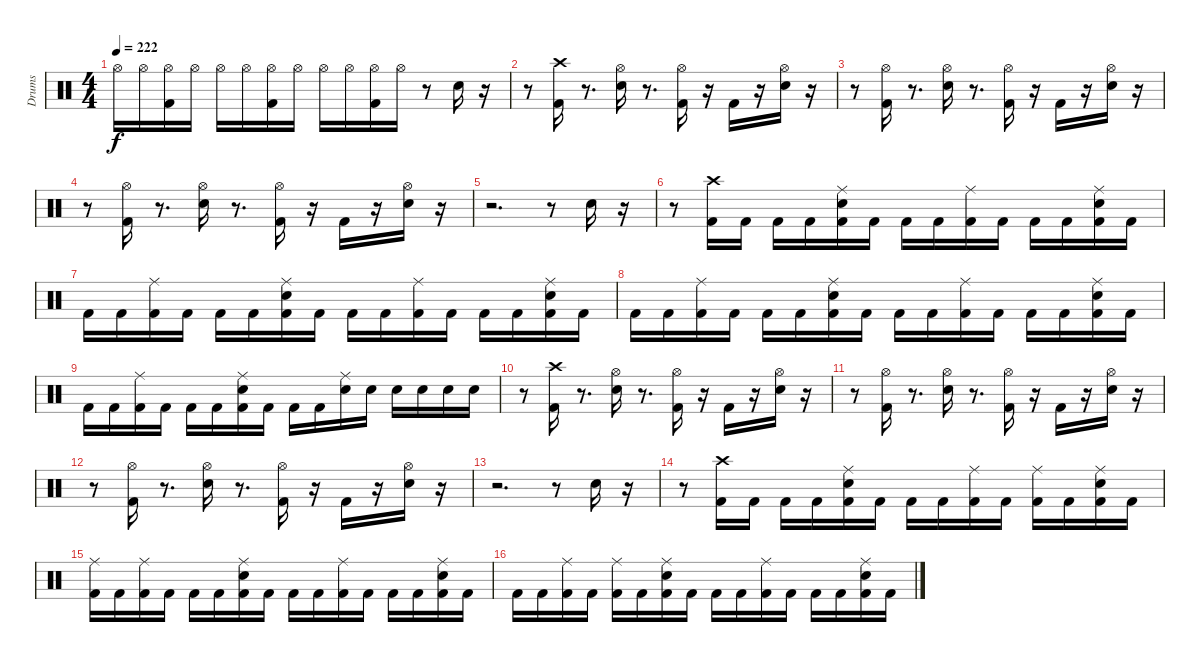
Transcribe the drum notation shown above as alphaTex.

\track ("Drums" "Drums") {instrument percussion}
\staff {score}
\articulation defaults
\ts (4 4)
\tempo 222
\clef neutral
\ks c "Hi-Hat (open)".16{dy f} "Hi-Hat (open)".16
("Kick (hit) 2" "Hi-Hat (open)").16 "Hi-Hat (open)".16 "Hi-Hat (open)".16 "Hi-Hat (open)".16 ("Kick (hit) 2" "Hi-Hat (open)").16 "Hi-Hat (open)".16 "Hi-Hat (open)".16 "Hi-Hat (open)".16 ("Kick (hit) 2" "Hi-Hat (open)").16 "Hi-Hat (open)".16 r.8 "Snare (hit) 2".16 r.16 |
r.8 ("Kick (hit) 2" "Crash high (hit)").16 r.8{d} ("Snare (hit) 2" "Hi-Hat (open)").16 r.8{d} ("Kick (hit) 2" "Hi-Hat (open)").16 r.16 "Kick (hit) 2".16 r.16 ("Snare (hit) 2" "Hi-Hat (open)").16 r.16 |
r.8 ("Kick (hit) 2" "Hi-Hat (open)").16 r.8{d} ("Snare (hit) 2" "Hi-Hat (open)").16 r.8{d} ("Kick (hit) 2" "Hi-Hat (open)").16 r.16 "Kick (hit) 2".16 r.16 ("Snare (hit) 2" "Hi-Hat (open)").16 r.16 |
r.8 ("Kick (hit) 2" "Hi-Hat (open)").16 r.8{d} ("Snare (hit) 2" "Hi-Hat (open)").16 r.8{d} ("Kick (hit) 2" "Hi-Hat (open)").16 r.16 "Kick (hit) 2".16 r.16 ("Snare (hit) 2" "Hi-Hat (open)").16 r.16 |
r.2{d} r.8 "Snare (hit) 2".16 r.16 |
r.8 ("Kick (hit) 2" "Crash high (hit)").16 "Kick (hit) 2".16 "Kick (hit) 2".16 "Kick (hit) 2".16 ("Kick (hit) 2" "Snare (hit) 2" "Ride (middle)").16 "Kick (hit) 2".16 "Kick (hit) 2".16 "Kick (hit) 2".16 ("Kick (hit) 2" "Ride (middle)").16 "Kick (hit) 2".16 "Kick (hit) 2".16 "Kick (hit) 2".16 ("Kick (hit) 2" "Snare (hit) 2" "Ride (middle)").16 "Kick (hit) 2".16 |
"Kick (hit) 2".16 "Kick (hit) 2".16 ("Kick (hit) 2" "Ride (middle)").16 "Kick (hit) 2".16 "Kick (hit) 2".16 "Kick (hit) 2".16 ("Kick (hit) 2" "Snare (hit) 2" "Ride (middle)").16 "Kick (hit) 2".16 "Kick (hit) 2".16 "Kick (hit) 2".16 ("Kick (hit) 2" "Ride (middle)").16 "Kick (hit) 2".16 "Kick (hit) 2".16 "Kick (hit) 2".16 ("Kick (hit) 2" "Snare (hit) 2" "Ride (middle)").16 "Kick (hit) 2".16 |
"Kick (hit) 2".16 "Kick (hit) 2".16 ("Kick (hit) 2" "Ride (middle)").16 "Kick (hit) 2".16 "Kick (hit) 2".16 "Kick (hit) 2".16 ("Kick (hit) 2" "Snare (hit) 2" "Ride (middle)").16 "Kick (hit) 2".16 "Kick (hit) 2".16 "Kick (hit) 2".16 ("Kick (hit) 2" "Ride (middle)").16 "Kick (hit) 2".16 "Kick (hit) 2".16 "Kick (hit) 2".16 ("Kick (hit) 2" "Snare (hit) 2" "Ride (middle)").16 "Kick (hit) 2".16 |
"Kick (hit) 2".16 "Kick (hit) 2".16 ("Kick (hit) 2" "Ride (middle)").16 "Kick (hit) 2".16 "Kick (hit) 2".16 "Kick (hit) 2".16 ("Kick (hit) 2" "Snare (hit) 2" "Ride (middle)").16 "Kick (hit) 2".16 "Kick (hit) 2".16 "Kick (hit) 2".16 ("Snare (hit) 2" "Ride (middle)").16 "Snare (hit) 2".16 "Snare (hit) 2".16 "Snare (hit) 2".16 "Snare (hit) 2".16 "Snare (hit) 2".16 |
r.8 ("Kick (hit) 2" "Crash high (hit)").16 r.8{d} ("Snare (hit) 2" "Hi-Hat (open)").16 r.8{d} ("Kick (hit) 2" "Hi-Hat (open)").16 r.16 "Kick (hit) 2".16 r.16 ("Snare (hit) 2" "Hi-Hat (open)").16 r.16 |
r.8 ("Kick (hit) 2" "Hi-Hat (open)").16 r.8{d} ("Snare (hit) 2" "Hi-Hat (open)").16 r.8{d} ("Kick (hit) 2" "Hi-Hat (open)").16 r.16 "Kick (hit) 2".16 r.16 ("Snare (hit) 2" "Hi-Hat (open)").16 r.16 |
r.8 ("Kick (hit) 2" "Hi-Hat (open)").16 r.8{d} ("Snare (hit) 2" "Hi-Hat (open)").16 r.8{d} ("Kick (hit) 2" "Hi-Hat (open)").16 r.16 "Kick (hit) 2".16 r.16 ("Snare (hit) 2" "Hi-Hat (open)").16 r.16 |
r.2{d} r.8 "Snare (hit) 2".16 r.16 |
r.8 ("Kick (hit) 2" "Crash high (hit)").16 "Kick (hit) 2".16 "Kick (hit) 2".16 "Kick (hit) 2".16 ("Kick (hit) 2" "Snare (hit) 2" "Ride (middle)").16 "Kick (hit) 2".16 "Kick (hit) 2".16 "Kick (hit) 2".16 ("Kick (hit) 2" "Ride (middle)").16 "Kick (hit) 2".16 ("Kick (hit) 2" "Ride (middle)").16 "Kick (hit) 2".16 ("Kick (hit) 2" "Snare (hit) 2" "Ride (middle)").16 "Kick (hit) 2".16 |
("Kick (hit) 2" "Ride (middle)").16 "Kick (hit) 2".16 ("Kick (hit) 2" "Ride (middle)").16 "Kick (hit) 2".16 "Kick (hit) 2".16 "Kick (hit) 2".16 ("Kick (hit) 2" "Snare (hit) 2" "Ride (middle)").16 "Kick (hit) 2".16 "Kick (hit) 2".16 "Kick (hit) 2".16 ("Kick (hit) 2" "Ride (middle)").16 "Kick (hit) 2".16 "Kick (hit) 2".16 "Kick (hit) 2".16 ("Kick (hit) 2" "Snare (hit) 2" "Ride (middle)").16 "Kick (hit) 2".16 |
"Kick (hit) 2".16 "Kick (hit) 2".16 ("Kick (hit) 2" "Ride (middle)").16 "Kick (hit) 2".16 ("Kick (hit) 2" "Ride (middle)").16 "Kick (hit) 2".16 ("Kick (hit) 2" "Snare (hit) 2" "Ride (middle)").16 "Kick (hit) 2".16 "Kick (hit) 2".16 "Kick (hit) 2".16 ("Kick (hit) 2" "Ride (middle)").16 "Kick (hit) 2".16 "Kick (hit) 2".16 "Kick (hit) 2".16 ("Kick (hit) 2" "Snare (hit) 2" "Ride (middle)").16 "Kick (hit) 2".16
